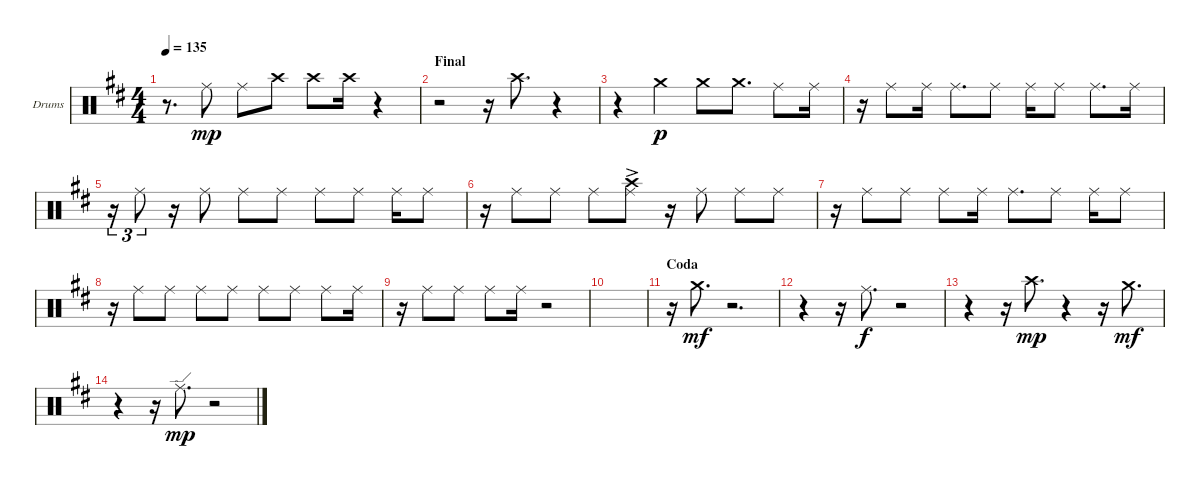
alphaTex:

\bracketExtendMode groupsimilarinstruments
\firstSystemTrackNameOrientation horizontal
\otherSystemsTrackNameOrientation horizontal
\track ("OH" "Drums") {instrument percussion}
\staff {score}
\articulation defaults
\ts (4 4)
\tempo 135
\clef neutral
\ks d
r.8{d dy mp} "Ride (middle)".8 "Ride (middle)".8 "Crash high (hit)".8 "Crash high (hit)".8 "Crash high (hit)".16 r.4 |
\section ("" "Final")
r.2 r.16 "Crash high (hit)".8{d} r.4 |
r.4 "Crash medium (hit)".4{dy p} "Crash medium (hit)".8 "Crash medium (hit)".8{d} "Ride (middle)".8 "Ride (middle)".16 |
r.16 "Ride (middle)".8 "Ride (middle)".16 "Ride (middle)".8{d} "Ride (middle)".8 "Ride (middle)".16 "Ride (middle)".8 "Ride (middle)".8{d} "Ride (middle)".16 |
r.16{tu (3 2)} "Ride (middle)".8{tu (3 2)} r.16 "Ride (middle)".8 "Ride (middle)".8 "Ride (middle)".8 "Ride (middle)".8 "Ride (middle)".8 "Ride (middle)".16 "Ride (middle)".8 |
r.16 "Ride (middle)".8 "Ride (middle)".8 "Ride (middle)".8 ("Ride (middle)" "Crash high (hit)"{ac}).8 r.16 "Ride (middle)".8 "Ride (middle)".8 "Ride (middle)".8 |
r.16 "Ride (middle)".8 "Ride (middle)".8 "Ride (middle)".8 "Ride (middle)".16 "Ride (middle)".8{d} "Ride (middle)".8 "Ride (middle)".16 "Ride (middle)".8 |
r.16 "Ride (middle)".8 "Ride (middle)".8 "Ride (middle)".8 "Ride (middle)".8 "Ride (middle)".8 "Ride (middle)".8 "Ride (middle)".8 "Ride (middle)".16 |
r.16 "Ride (middle)".8 "Ride (middle)".8 "Ride (middle)".8 "Ride (middle)".16 r.2 |
|
\section ("" "Coda")
r.16 "Crash medium (hit)".8{d dy mf} r.2{d} |
r.4 r.16 "Ride (middle)".8{d dy f} r.2 |
r.4 r.16 "Crash high (hit)".8{d dy mp} r.4 r.16 "Crash medium (hit)".8{d dy mf} |
r.4 r.16 "Ride (edge)".8{d dy mp} r.2
